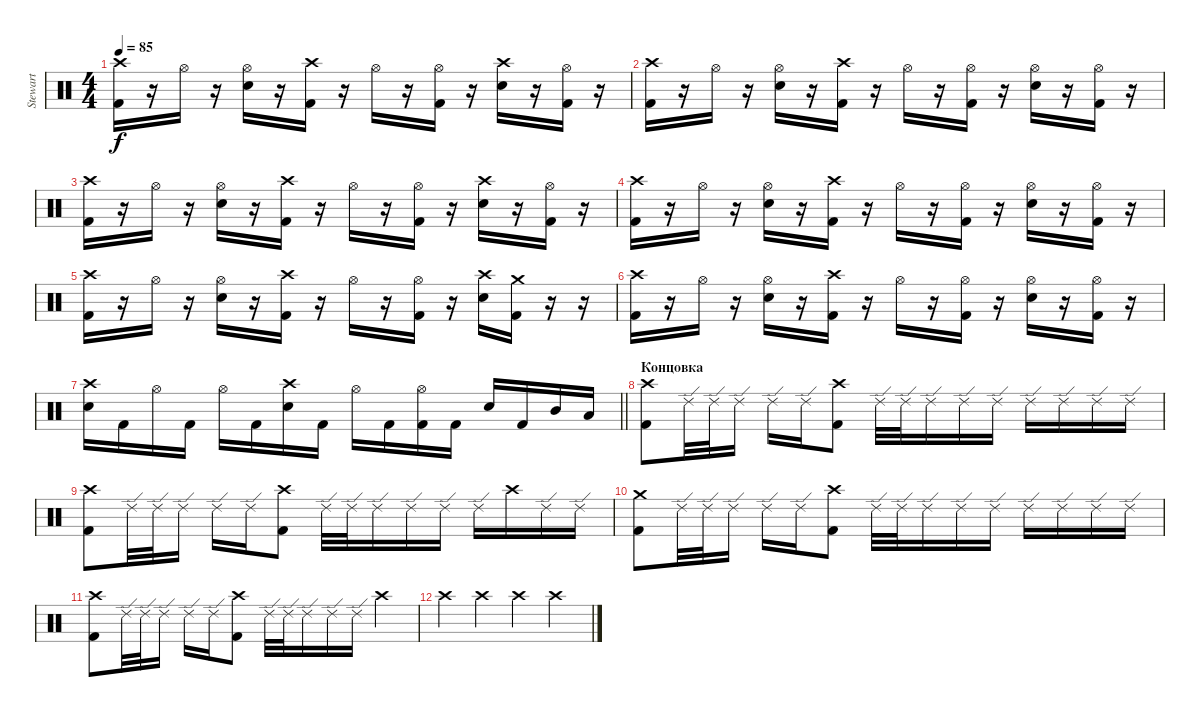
\track ("Stewart" "Stewart") {instrument percussion}
\staff {score}
\articulation defaults
\ts (4 4)
\tempo 85
\clef neutral
\ks c
("Crash high (hit)" "Kick (hit) 2").16{dy f} r.16 "Hi-Hat (open)".16 r.16 ("Hi-Hat (open)" "Electric Snare (hit)").16 r.16 ("Crash high (hit)" "Kick (hit) 2").16 r.16 "Hi-Hat (open)".16 r.16 ("Hi-Hat (open)" "Kick (hit) 2").16 r.16 ("Crash high (hit)" "Electric Snare (hit)").16 r.16 ("Hi-Hat (open)" "Kick (hit) 2").16 r.16 |
("Crash high (hit)" "Kick (hit) 2").16 r.16 "Hi-Hat (open)".16 r.16 ("Hi-Hat (open)" "Electric Snare (hit)").16 r.16 ("Crash high (hit)" "Kick (hit) 2").16 r.16 "Hi-Hat (open)".16 r.16 ("Hi-Hat (open)" "Kick (hit) 2").16 r.16 ("Hi-Hat (open)" "Electric Snare (hit)").16 r.16 ("Hi-Hat (open)" "Kick (hit) 2").16 r.16 |
("Crash high (hit)" "Kick (hit) 2").16 r.16 "Hi-Hat (open)".16 r.16 ("Hi-Hat (open)" "Electric Snare (hit)").16 r.16 ("Crash high (hit)" "Kick (hit) 2").16 r.16 "Hi-Hat (open)".16 r.16 ("Hi-Hat (open)" "Kick (hit) 2").16 r.16 ("Crash high (hit)" "Electric Snare (hit)").16 r.16 ("Hi-Hat (open)" "Kick (hit) 2").16 r.16 |
("Crash high (hit)" "Kick (hit) 2").16 r.16 "Hi-Hat (open)".16 r.16 ("Hi-Hat (open)" "Electric Snare (hit)").16 r.16 ("Crash high (hit)" "Kick (hit) 2").16 r.16 "Hi-Hat (open)".16 r.16 ("Hi-Hat (open)" "Kick (hit) 2").16 r.16 ("Hi-Hat (open)" "Electric Snare (hit)").16 r.16 ("Hi-Hat (open)" "Kick (hit) 2").16 r.16 |
("Crash high (hit)" "Kick (hit) 2").16 r.16 "Hi-Hat (open)".16 r.16 ("Hi-Hat (open)" "Electric Snare (hit)").16 r.16 ("Crash high (hit)" "Kick (hit) 2").16 r.16 "Hi-Hat (open)".16 r.16 ("Hi-Hat (open)" "Kick (hit) 2").16 r.16 ("Crash high (hit)" "Electric Snare (hit)").16 ("Crash medium (hit)" "Kick (hit) 2").16 r.16 r.16 |
("Crash high (hit)" "Kick (hit) 2").16 r.16 "Hi-Hat (open)".16 r.16 ("Hi-Hat (open)" "Electric Snare (hit)").16 r.16 ("Crash high (hit)" "Kick (hit) 2").16 r.16 "Hi-Hat (open)".16 r.16 ("Hi-Hat (open)" "Kick (hit) 2").16 r.16 ("Hi-Hat (open)" "Electric Snare (hit)").16 r.16 ("Hi-Hat (open)" "Kick (hit) 2").16 r.16 |
\barLineRight lightlight
("Crash high (hit)" "Electric Snare (hit)").16 "Kick (hit) 2".16 "Hi-Hat (open)".16 "Kick (hit) 2".16 "Hi-Hat (open)".16 "Kick (hit) 2".16 ("Crash high (hit)" "Electric Snare (hit)").16 "Kick (hit) 2".16 "Hi-Hat (open)".16 "Kick (hit) 2".16 ("Hi-Hat (open)" "Kick (hit) 2").16 "Kick (hit) 2".16 "Electric Snare (hit)".16 "Kick (hit) 2".16 "Mid Tom (hit)".16 "Low Tom (hit)".16 |
\section ("" "Концовка")
("Crash high (hit)" "Kick (hit) 2").8 "Ride (edge) 2".32 "Ride (edge) 2".32 "Ride (edge) 2".16 "Ride (edge) 2".16 "Ride (edge) 2".16 ("Crash high (hit)" "Kick (hit) 2").8 "Ride (edge) 2".32 "Ride (edge) 2".32 "Ride (edge) 2".16 "Ride (edge) 2".16 "Ride (edge) 2".16 "Ride (edge) 2".16 "Ride (edge) 2".16 "Ride (edge) 2".16 "Ride (edge) 2".16 |
("Crash high (hit)" "Kick (hit) 2").8 "Ride (edge) 2".32 "Ride (edge) 2".32 "Ride (edge) 2".16 "Ride (edge) 2".16 "Ride (edge) 2".16 ("Crash high (hit)" "Kick (hit) 2").8 "Ride (edge) 2".32 "Ride (edge) 2".32 "Ride (edge) 2".16 "Ride (edge) 2".16 "Ride (edge) 2".16 "Ride (edge) 2".16 "Crash high (hit)".16 "Ride (edge) 2".16 "Ride (edge) 2".16 |
("Crash medium (hit)" "Kick (hit) 2").8 "Ride (edge) 2".32 "Ride (edge) 2".32 "Ride (edge) 2".16 "Ride (edge) 2".16 "Ride (edge) 2".16 ("Crash high (hit)" "Kick (hit) 2").8 "Ride (edge) 2".32 "Ride (edge) 2".32 "Ride (edge) 2".16 "Ride (edge) 2".16 "Ride (edge) 2".16 "Ride (edge) 2".16 "Ride (edge) 2".16 "Ride (edge) 2".16 "Ride (edge) 2".16 |
("Crash high (hit)" "Kick (hit) 2").8 "Ride (edge) 2".32 "Ride (edge) 2".32 "Ride (edge) 2".16 "Ride (edge) 2".16 "Ride (edge) 2".16 ("Crash high (hit)" "Kick (hit) 2").8 "Ride (edge) 2".32 "Ride (edge) 2".32 "Ride (edge) 2".16 "Ride (edge) 2".16 "Ride (edge) 2".16 "Crash high (hit)".4 |
"Crash high (hit)".4 "Crash high (hit)".4 "Crash high (hit)".4 "Crash high (hit)".4
